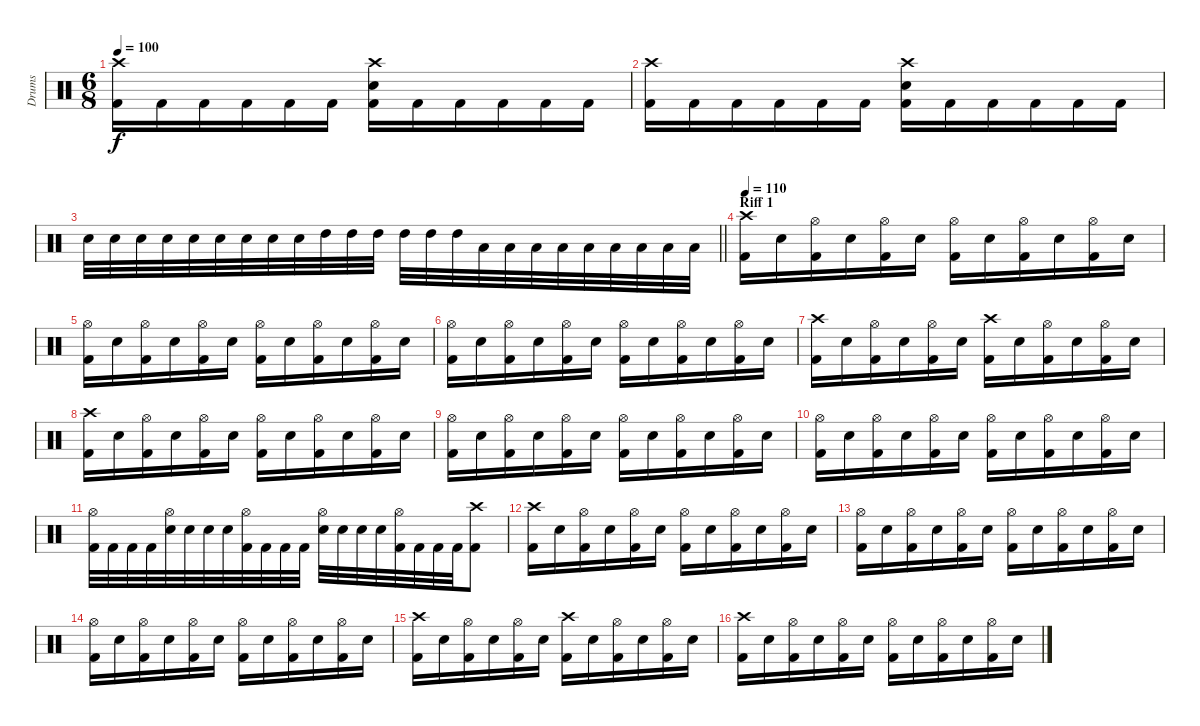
\track ("Drums" "Drums") {instrument percussion}
\staff {score}
\articulation defaults
\ts (6 8)
\tempo 100
\clef neutral
\ks c
("Crash high (hit)" "Kick (hit) 2").16{dy f} "Kick (hit) 2".16 "Kick (hit) 2".16 "Kick (hit) 2".16 "Kick (hit) 2".16 "Kick (hit) 2".16 ("Crash high (hit)" "Electric Snare (hit)" "Kick (hit) 2").16 "Kick (hit) 2".16 "Kick (hit) 2".16 "Kick (hit) 2".16 "Kick (hit) 2".16 "Kick (hit) 2".16 |
("Crash high (hit)" "Kick (hit) 2").16 "Kick (hit) 2".16 "Kick (hit) 2".16 "Kick (hit) 2".16 "Kick (hit) 2".16 "Kick (hit) 2".16 ("Crash high (hit)" "Electric Snare (hit)" "Kick (hit) 2").16 "Kick (hit) 2".16 "Kick (hit) 2".16 "Kick (hit) 2".16 "Kick (hit) 2".16 "Kick (hit) 2".16 |
\barLineRight lightlight "Electric Snare (hit)".32 "Electric Snare (hit)".32 "Electric Snare (hit)".32 "Electric Snare (hit)".32 "Electric Snare (hit)".32 "Electric Snare (hit)".32 "Electric Snare (hit)".32 "Electric Snare (hit)".32 "Electric Snare (hit)".32 "High Tom (hit)".32 "High Tom (hit)".32 "High Tom (hit)".32 "High Tom (hit)".32 "High Tom (hit)".32 "High Tom (hit)".32 "Low Tom (hit)".32 "Low Tom (hit)".32 "Low Tom (hit)".32 "Low Tom (hit)".32 "Low Tom (hit)".32 "Low Tom (hit)".32 "Low Floor Tom (hit)".32 "Low Floor Tom (hit)".32 "Low Floor Tom (hit)".32
|
\section ("" "Riff 1")
\tempo 110
("Crash high (hit)" "Kick (hit) 2").16 "Snare (hit) 2".16 ("Hi-Hat (open)" "Kick (hit) 2").16 "Snare (hit) 2".16 ("Hi-Hat (open)" "Kick (hit) 2").16 "Snare (hit) 2".16 ("Hi-Hat (open)" "Kick (hit) 2").16 "Snare (hit) 2".16 ("Hi-Hat (open)" "Kick (hit) 2").16 "Snare (hit) 2".16 ("Hi-Hat (open)" "Kick (hit) 2").16 "Snare (hit) 2".16 |
("Hi-Hat (open)" "Kick (hit) 2").16 "Snare (hit) 2".16 ("Hi-Hat (open)" "Kick (hit) 2").16 "Snare (hit) 2".16 ("Hi-Hat (open)" "Kick (hit) 2").16 "Snare (hit) 2".16 ("Hi-Hat (open)" "Kick (hit) 2").16 "Snare (hit) 2".16 ("Hi-Hat (open)" "Kick (hit) 2").16 "Snare (hit) 2".16 ("Hi-Hat (open)" "Kick (hit) 2").16 "Snare (hit) 2".16 |
("Hi-Hat (open)" "Kick (hit) 2").16 "Snare (hit) 2".16 ("Hi-Hat (open)" "Kick (hit) 2").16 "Snare (hit) 2".16 ("Hi-Hat (open)" "Kick (hit) 2").16 "Snare (hit) 2".16 ("Hi-Hat (open)" "Kick (hit) 2").16 "Snare (hit) 2".16 ("Hi-Hat (open)" "Kick (hit) 2").16 "Snare (hit) 2".16 ("Hi-Hat (open)" "Kick (hit) 2").16 "Snare (hit) 2".16 |
("Crash high (hit)" "Kick (hit) 2").16 "Snare (hit) 2".16 ("Hi-Hat (open)" "Kick (hit) 2").16 "Snare (hit) 2".16 ("Hi-Hat (open)" "Kick (hit) 2").16 "Snare (hit) 2".16 ("Crash high (hit)" "Kick (hit) 2").16 "Snare (hit) 2".16 ("Hi-Hat (open)" "Kick (hit) 2").16 "Snare (hit) 2".16 ("Hi-Hat (open)" "Kick (hit) 2").16 "Snare (hit) 2".16 |
("Crash high (hit)" "Kick (hit) 2").16 "Snare (hit) 2".16 ("Hi-Hat (open)" "Kick (hit) 2").16 "Snare (hit) 2".16 ("Hi-Hat (open)" "Kick (hit) 2").16 "Snare (hit) 2".16 ("Hi-Hat (open)" "Kick (hit) 2").16 "Snare (hit) 2".16 ("Hi-Hat (open)" "Kick (hit) 2").16 "Snare (hit) 2".16 ("Hi-Hat (open)" "Kick (hit) 2").16 "Snare (hit) 2".16 |
("Hi-Hat (open)" "Kick (hit) 2").16 "Snare (hit) 2".16 ("Hi-Hat (open)" "Kick (hit) 2").16 "Snare (hit) 2".16 ("Hi-Hat (open)" "Kick (hit) 2").16 "Snare (hit) 2".16 ("Hi-Hat (open)" "Kick (hit) 2").16 "Snare (hit) 2".16 ("Hi-Hat (open)" "Kick (hit) 2").16 "Snare (hit) 2".16 ("Hi-Hat (open)" "Kick (hit) 2").16 "Snare (hit) 2".16 |
("Hi-Hat (open)" "Kick (hit) 2").16 "Snare (hit) 2".16 ("Hi-Hat (open)" "Kick (hit) 2").16 "Snare (hit) 2".16 ("Hi-Hat (open)" "Kick (hit) 2").16 "Snare (hit) 2".16 ("Hi-Hat (open)" "Kick (hit) 2").16 "Snare (hit) 2".16 ("Hi-Hat (open)" "Kick (hit) 2").16 "Snare (hit) 2".16 ("Hi-Hat (open)" "Kick (hit) 2").16 "Snare (hit) 2".16 |
("Hi-Hat (open)" "Kick (hit) 2").32 "Kick (hit) 2".32 "Kick (hit) 2".32 "Kick (hit) 2".32 ("Hi-Hat (open)" "Snare (hit) 2").32 "Snare (hit) 2".32 "Snare (hit) 2".32 "Snare (hit) 2".32 ("Hi-Hat (open)" "Kick (hit) 2").32 "Kick (hit) 2".32 "Kick (hit) 2".32 "Kick (hit) 2".32 ("Hi-Hat (open)" "Snare (hit) 2").32 "Snare (hit) 2".32 "Snare (hit) 2".32 "Snare (hit) 2".32 ("Hi-Hat (open)" "Kick (hit) 2").32 "Kick (hit) 2".32 "Kick (hit) 2".32 "Kick (hit) 2".32 ("Crash high (hit)" "Kick (hit) 2").8 |
("Crash high (hit)" "Kick (hit) 2").16 "Snare (hit) 2".16 ("Hi-Hat (open)" "Kick (hit) 2").16 "Snare (hit) 2".16 ("Hi-Hat (open)" "Kick (hit) 2").16 "Snare (hit) 2".16 ("Hi-Hat (open)" "Kick (hit) 2").16 "Snare (hit) 2".16 ("Hi-Hat (open)" "Kick (hit) 2").16 "Snare (hit) 2".16 ("Hi-Hat (open)" "Kick (hit) 2").16 "Snare (hit) 2".16 |
("Hi-Hat (open)" "Kick (hit) 2").16 "Snare (hit) 2".16 ("Hi-Hat (open)" "Kick (hit) 2").16 "Snare (hit) 2".16 ("Hi-Hat (open)" "Kick (hit) 2").16 "Snare (hit) 2".16 ("Hi-Hat (open)" "Kick (hit) 2").16 "Snare (hit) 2".16 ("Hi-Hat (open)" "Kick (hit) 2").16 "Snare (hit) 2".16 ("Hi-Hat (open)" "Kick (hit) 2").16 "Snare (hit) 2".16 |
("Hi-Hat (open)" "Kick (hit) 2").16 "Snare (hit) 2".16 ("Hi-Hat (open)" "Kick (hit) 2").16 "Snare (hit) 2".16 ("Hi-Hat (open)" "Kick (hit) 2").16 "Snare (hit) 2".16 ("Hi-Hat (open)" "Kick (hit) 2").16 "Snare (hit) 2".16 ("Hi-Hat (open)" "Kick (hit) 2").16 "Snare (hit) 2".16 ("Hi-Hat (open)" "Kick (hit) 2").16 "Snare (hit) 2".16 |
("Crash high (hit)" "Kick (hit) 2").16 "Snare (hit) 2".16 ("Hi-Hat (open)" "Kick (hit) 2").16 "Snare (hit) 2".16 ("Hi-Hat (open)" "Kick (hit) 2").16 "Snare (hit) 2".16 ("Crash high (hit)" "Kick (hit) 2").16 "Snare (hit) 2".16 ("Hi-Hat (open)" "Kick (hit) 2").16 "Snare (hit) 2".16 ("Hi-Hat (open)" "Kick (hit) 2").16 "Snare (hit) 2".16 |
("Crash high (hit)" "Kick (hit) 2").16 "Snare (hit) 2".16 ("Hi-Hat (open)" "Kick (hit) 2").16 "Snare (hit) 2".16 ("Hi-Hat (open)" "Kick (hit) 2").16 "Snare (hit) 2".16 ("Hi-Hat (open)" "Kick (hit) 2").16 "Snare (hit) 2".16 ("Hi-Hat (open)" "Kick (hit) 2").16 "Snare (hit) 2".16 ("Hi-Hat (open)" "Kick (hit) 2").16 "Snare (hit) 2".16
